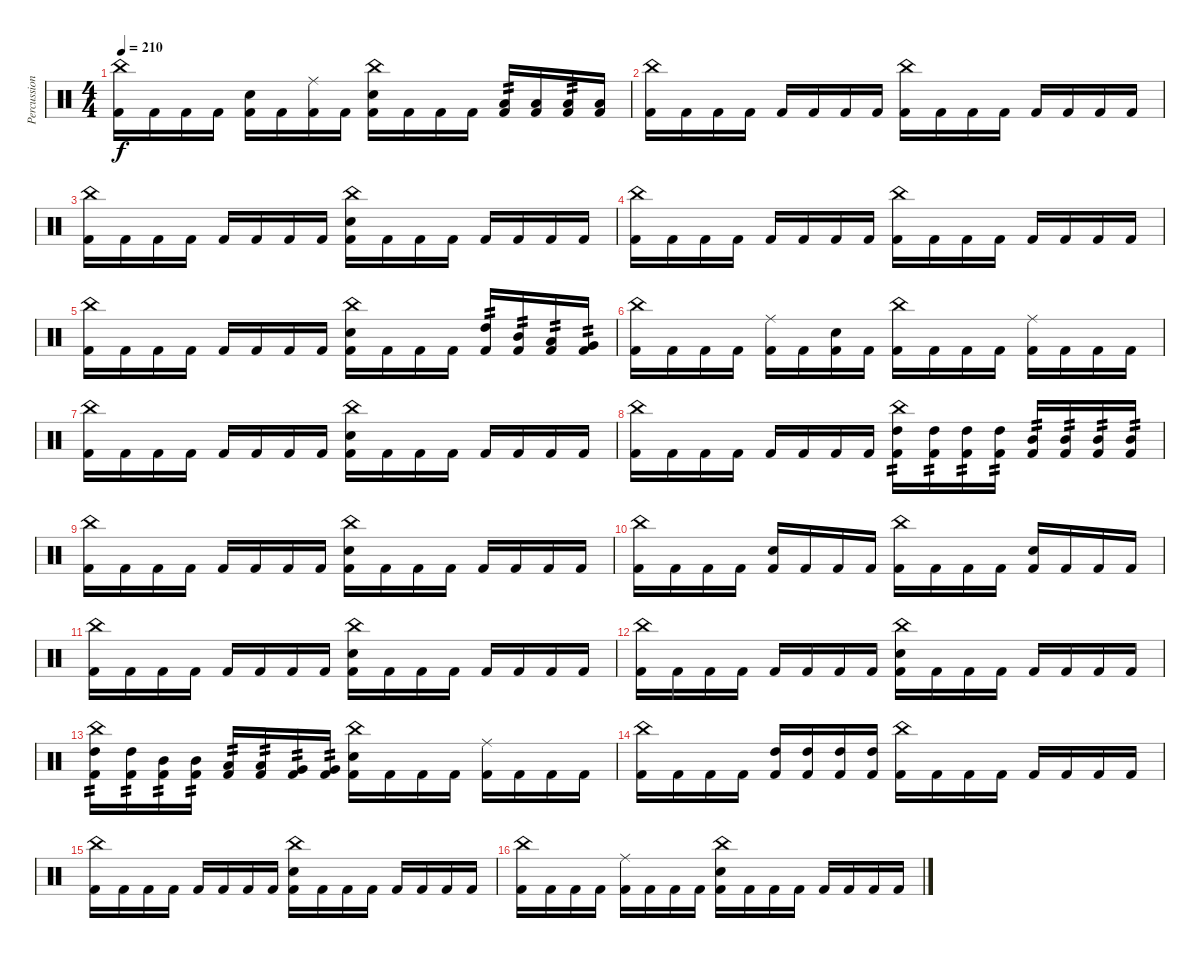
\track ("Percussions" "Percussion") {instrument percussion}
\staff {score}
\articulation defaults
\ts (4 4)
\tempo 210
\clef neutral
\ks c
("China (hit)" "Kick (hit) 2").16{dy f} "Kick (hit) 2".16 "Kick (hit) 2".16 "Kick (hit) 2".16 ("Snare (hit) 2" "Kick (hit) 2").16 "Kick (hit) 2".16 ("Ride (middle)" "Kick (hit) 2").16 "Kick (hit) 2".16 ("China (hit)" "Snare (hit) 2" "Kick (hit) 2").16 "Kick (hit) 2".16 "Kick (hit) 2".16 "Kick (hit) 2".16 ("Low Tom (hit)" "Kick (hit) 2").16{tp 2} ("Low Tom (hit)" "Kick (hit) 2").16 ("Low Tom (hit)" "Kick (hit) 2").16{tp 2} ("Low Tom (hit)" "Kick (hit) 2").16 |
("China (hit)" "Kick (hit) 2").16 "Kick (hit) 2".16 "Kick (hit) 2".16 "Kick (hit) 2".16 "Kick (hit) 2".16 "Kick (hit) 2".16 "Kick (hit) 2".16 "Kick (hit) 2".16 ("China (hit)" "Kick (hit) 2").16 "Kick (hit) 2".16 "Kick (hit) 2".16 "Kick (hit) 2".16 "Kick (hit) 2".16 "Kick (hit) 2".16 "Kick (hit) 2".16 "Kick (hit) 2".16 |
("China (hit)" "Kick (hit) 2").16 "Kick (hit) 2".16 "Kick (hit) 2".16 "Kick (hit) 2".16 "Kick (hit) 2".16 "Kick (hit) 2".16 "Kick (hit) 2".16 "Kick (hit) 2".16 ("China (hit)" "Snare (hit) 2" "Kick (hit) 2").16 "Kick (hit) 2".16 "Kick (hit) 2".16 "Kick (hit) 2".16 "Kick (hit) 2".16 "Kick (hit) 2".16 "Kick (hit) 2".16 "Kick (hit) 2".16 |
("China (hit)" "Kick (hit) 2").16 "Kick (hit) 2".16 "Kick (hit) 2".16 "Kick (hit) 2".16 "Kick (hit) 2".16 "Kick (hit) 2".16 "Kick (hit) 2".16 "Kick (hit) 2".16 ("China (hit)" "Kick (hit) 2").16 "Kick (hit) 2".16 "Kick (hit) 2".16 "Kick (hit) 2".16 "Kick (hit) 2".16 "Kick (hit) 2".16 "Kick (hit) 2".16 "Kick (hit) 2".16 |
("China (hit)" "Kick (hit) 2").16 "Kick (hit) 2".16 "Kick (hit) 2".16 "Kick (hit) 2".16 "Kick (hit) 2".16 "Kick (hit) 2".16 "Kick (hit) 2".16 "Kick (hit) 2".16 ("China (hit)" "Snare (hit) 2" "Kick (hit) 2").16 "Kick (hit) 2".16 "Kick (hit) 2".16 "Kick (hit) 2".16 ("High Tom (hit)" "Kick (hit) 2").16{tp 2} ("Mid Tom (hit)" "Kick (hit) 2").16{tp 2} ("Low Tom (hit)" "Kick (hit) 2").16{tp 2} ("Very Low Tom (hit)" "Kick (hit) 2").16{tp 2} |
("China (hit)" "Kick (hit) 2").16 "Kick (hit) 2".16 "Kick (hit) 2".16 "Kick (hit) 2".16 ("Ride (middle)" "Kick (hit) 2").16 "Kick (hit) 2".16 ("Snare (hit) 2" "Kick (hit) 2").16 "Kick (hit) 2".16 ("China (hit)" "Kick (hit) 2").16 "Kick (hit) 2".16 "Kick (hit) 2".16 "Kick (hit) 2".16 ("Ride (middle)" "Kick (hit) 2").16 "Kick (hit) 2".16 "Kick (hit) 2".16 "Kick (hit) 2".16 |
("China (hit)" "Kick (hit) 2").16 "Kick (hit) 2".16 "Kick (hit) 2".16 "Kick (hit) 2".16 "Kick (hit) 2".16 "Kick (hit) 2".16 "Kick (hit) 2".16 "Kick (hit) 2".16 ("China (hit)" "Snare (hit) 2" "Kick (hit) 2").16 "Kick (hit) 2".16 "Kick (hit) 2".16 "Kick (hit) 2".16 "Kick (hit) 2".16 "Kick (hit) 2".16 "Kick (hit) 2".16 "Kick (hit) 2".16 |
("China (hit)" "Kick (hit) 2").16 "Kick (hit) 2".16 "Kick (hit) 2".16 "Kick (hit) 2".16 "Kick (hit) 2".16 "Kick (hit) 2".16 "Kick (hit) 2".16 "Kick (hit) 2".16 ("High Tom (hit)" "China (hit)" "Kick (hit) 2").16{tp 2} ("High Tom (hit)" "Kick (hit) 2").16{tp 2} ("High Tom (hit)" "Kick (hit) 2").16{tp 2} ("High Tom (hit)" "Kick (hit) 2").16{tp 2} ("Mid Tom (hit)" "Kick (hit) 2").16{tp 2} ("Mid Tom (hit)" "Kick (hit) 2").16{tp 2} ("Mid Tom (hit)" "Kick (hit) 2").16{tp 2} ("Mid Tom (hit)" "Kick (hit) 2").16{tp 2} |
("China (hit)" "Kick (hit) 2").16 "Kick (hit) 2".16 "Kick (hit) 2".16 "Kick (hit) 2".16 "Kick (hit) 2".16 "Kick (hit) 2".16 "Kick (hit) 2".16 "Kick (hit) 2".16 ("China (hit)" "Snare (hit) 2" "Kick (hit) 2").16 "Kick (hit) 2".16 "Kick (hit) 2".16 "Kick (hit) 2".16 "Kick (hit) 2".16 "Kick (hit) 2".16 "Kick (hit) 2".16 "Kick (hit) 2".16 |
("China (hit)" "Kick (hit) 2").16 "Kick (hit) 2".16 "Kick (hit) 2".16 "Kick (hit) 2".16 ("Snare (hit) 2" "Kick (hit) 2").16 "Kick (hit) 2".16 "Kick (hit) 2".16 "Kick (hit) 2".16 ("China (hit)" "Kick (hit) 2").16 "Kick (hit) 2".16 "Kick (hit) 2".16 "Kick (hit) 2".16 ("Snare (hit) 2" "Kick (hit) 2").16 "Kick (hit) 2".16 "Kick (hit) 2".16 "Kick (hit) 2".16 |
("China (hit)" "Kick (hit) 2").16 "Kick (hit) 2".16 "Kick (hit) 2".16 "Kick (hit) 2".16 "Kick (hit) 2".16 "Kick (hit) 2".16 "Kick (hit) 2".16 "Kick (hit) 2".16 ("China (hit)" "Snare (hit) 2" "Kick (hit) 2").16 "Kick (hit) 2".16 "Kick (hit) 2".16 "Kick (hit) 2".16 "Kick (hit) 2".16 "Kick (hit) 2".16 "Kick (hit) 2".16 "Kick (hit) 2".16 |
("China (hit)" "Kick (hit) 2").16 "Kick (hit) 2".16 "Kick (hit) 2".16 "Kick (hit) 2".16 "Kick (hit) 2".16 "Kick (hit) 2".16 "Kick (hit) 2".16 "Kick (hit) 2".16 ("Snare (hit) 2" "China (hit)" "Kick (hit) 2").16 "Kick (hit) 2".16 "Kick (hit) 2".16 "Kick (hit) 2".16 "Kick (hit) 2".16 "Kick (hit) 2".16 "Kick (hit) 2".16 "Kick (hit) 2".16 |
("High Tom (hit)" "China (hit)" "Kick (hit) 2").16{tp 2} ("High Tom (hit)" "Kick (hit) 2").16{tp 2} ("Mid Tom (hit)" "Kick (hit) 2").16{tp 2} ("Mid Tom (hit)" "Kick (hit) 2").16{tp 2} ("Low Tom (hit)" "Kick (hit) 2").16{tp 2} ("Low Tom (hit)" "Kick (hit) 2").16{tp 2} ("Very Low Tom (hit)" "Kick (hit) 2").16{tp 2} ("Very Low Tom (hit)" "Kick (hit) 2").16{tp 2} ("China (hit)" "Snare (hit) 2" "Kick (hit) 2").16 "Kick (hit) 2".16 "Kick (hit) 2".16 "Kick (hit) 2".16 ("Ride (middle)" "Kick (hit) 2").16 "Kick (hit) 2".16 "Kick (hit) 2".16 "Kick (hit) 2".16 |
("China (hit)" "Kick (hit) 2").16 "Kick (hit) 2".16 "Kick (hit) 2".16 "Kick (hit) 2".16 ("High Tom (hit)" "Kick (hit) 2").16 ("High Tom (hit)" "Kick (hit) 2").16 ("High Tom (hit)" "Kick (hit) 2").16 ("High Tom (hit)" "Kick (hit) 2").16 ("China (hit)" "Kick (hit) 2").16 "Kick (hit) 2".16 "Kick (hit) 2".16 "Kick (hit) 2".16 "Kick (hit) 2".16 "Kick (hit) 2".16 "Kick (hit) 2".16 "Kick (hit) 2".16 |
("China (hit)" "Kick (hit) 2").16 "Kick (hit) 2".16 "Kick (hit) 2".16 "Kick (hit) 2".16 "Kick (hit) 2".16 "Kick (hit) 2".16 "Kick (hit) 2".16 "Kick (hit) 2".16 ("China (hit)" "Snare (hit) 2" "Kick (hit) 2").16 "Kick (hit) 2".16 "Kick (hit) 2".16 "Kick (hit) 2".16 "Kick (hit) 2".16 "Kick (hit) 2".16 "Kick (hit) 2".16 "Kick (hit) 2".16 |
("China (hit)" "Kick (hit) 2").16 "Kick (hit) 2".16 "Kick (hit) 2".16 "Kick (hit) 2".16 ("Ride (middle)" "Kick (hit) 2").16 "Kick (hit) 2".16 "Kick (hit) 2".16 "Kick (hit) 2".16 ("Snare (hit) 2" "China (hit)" "Kick (hit) 2").16 "Kick (hit) 2".16 "Kick (hit) 2".16 "Kick (hit) 2".16 "Kick (hit) 2".16 "Kick (hit) 2".16 "Kick (hit) 2".16 "Kick (hit) 2".16
